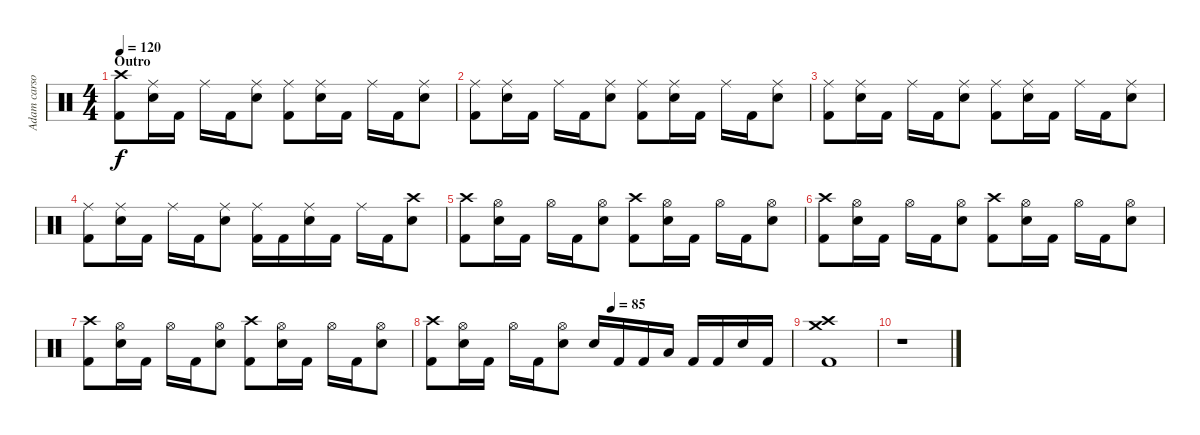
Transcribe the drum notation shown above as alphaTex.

\track ("Adam carson" "Adam carso") {instrument percussion}
\staff {score}
\articulation defaults
\ts (4 4)
\section ("" "Outro")
\tempo 120
\clef neutral
\ks c
("Kick (hit) 2" "Crash high (hit)").8{dy f} ("Ride (middle)" "Snare (hit) 2").16 "Kick (hit) 2".16 "Ride (middle)".16 "Kick (hit) 2".16 ("Ride (middle)" "Snare (hit) 2").8 ("Kick (hit) 2" "Ride (middle)").8 ("Ride (middle)" "Snare (hit) 2").16 "Kick (hit) 2".16 "Ride (middle)".16 "Kick (hit) 2".16 ("Ride (middle)" "Snare (hit) 2").8 |
("Kick (hit) 2" "Ride (middle)").8 ("Ride (middle)" "Snare (hit) 2").16 "Kick (hit) 2".16 "Ride (middle)".16 "Kick (hit) 2".16 ("Ride (middle)" "Snare (hit) 2").8 ("Kick (hit) 2" "Ride (middle)").8 ("Ride (middle)" "Snare (hit) 2").16 "Kick (hit) 2".16 "Ride (middle)".16 "Kick (hit) 2".16 ("Ride (middle)" "Snare (hit) 2").8 |
("Kick (hit) 2" "Ride (middle)").8 ("Ride (middle)" "Snare (hit) 2").16 "Kick (hit) 2".16 "Ride (middle)".16 "Kick (hit) 2".16 ("Ride (middle)" "Snare (hit) 2").8 ("Kick (hit) 2" "Ride (middle)").8 ("Ride (middle)" "Snare (hit) 2").16 "Kick (hit) 2".16 "Ride (middle)".16 "Kick (hit) 2".16 ("Ride (middle)" "Snare (hit) 2").8 |
("Kick (hit) 2" "Ride (middle)").8 ("Ride (middle)" "Snare (hit) 2").16 "Kick (hit) 2".16 "Ride (middle)".16 "Kick (hit) 2".16 ("Ride (middle)" "Snare (hit) 2").8 ("Kick (hit) 2" "Ride (middle)").16 "Kick (hit) 2".16 ("Ride (middle)" "Snare (hit) 2").16 "Kick (hit) 2".16 "Ride (middle)".16 "Kick (hit) 2".16 ("Crash high (hit)" "Snare (hit) 2").8 |
("Kick (hit) 2" "Crash high (hit)").8 ("Snare (hit) 2" "Hi-Hat (open)").16 "Kick (hit) 2".16 "Hi-Hat (open)".16 "Kick (hit) 2".16 ("Snare (hit) 2" "Hi-Hat (open)").8 ("Kick (hit) 2" "Crash high (hit)").8 ("Snare (hit) 2" "Hi-Hat (open)").16 "Kick (hit) 2".16 "Hi-Hat (open)".16 "Kick (hit) 2".16 ("Snare (hit) 2" "Hi-Hat (open)").8 |
("Kick (hit) 2" "Crash high (hit)").8 ("Snare (hit) 2" "Hi-Hat (open)").16 "Kick (hit) 2".16 "Hi-Hat (open)".16 "Kick (hit) 2".16 ("Snare (hit) 2" "Hi-Hat (open)").8 ("Kick (hit) 2" "Crash high (hit)").8 ("Snare (hit) 2" "Hi-Hat (open)").16 "Kick (hit) 2".16 "Hi-Hat (open)".16 "Kick (hit) 2".16 ("Snare (hit) 2" "Hi-Hat (open)").8 |
("Kick (hit) 2" "Crash high (hit)").8 ("Snare (hit) 2" "Hi-Hat (open)").16 "Kick (hit) 2".16 "Hi-Hat (open)".16 "Kick (hit) 2".16 ("Snare (hit) 2" "Hi-Hat (open)").8 ("Kick (hit) 2" "Crash high (hit)").8 ("Snare (hit) 2" "Hi-Hat (open)").16 "Kick (hit) 2".16 "Hi-Hat (open)".16 "Kick (hit) 2".16 ("Snare (hit) 2" "Hi-Hat (open)").8 |
\tempo (85 0.5)
("Kick (hit) 2" "Crash high (hit)").8 ("Snare (hit) 2" "Hi-Hat (open)").16 "Kick (hit) 2".16 "Hi-Hat (open)".16 "Kick (hit) 2".16 ("Snare (hit) 2" "Hi-Hat (open)").8 "Snare (hit) 2".16 "Kick (hit) 2".16 "Kick (hit) 2".16 "Low Tom (hit)".16 "Kick (hit) 2".16 "Kick (hit) 2".16 "Snare (hit) 2".16 "Kick (hit) 2".16 |
("Kick (hit) 2" "Crash high (hit)" "Crash medium (hit)").1{volume 0} |
r.1
